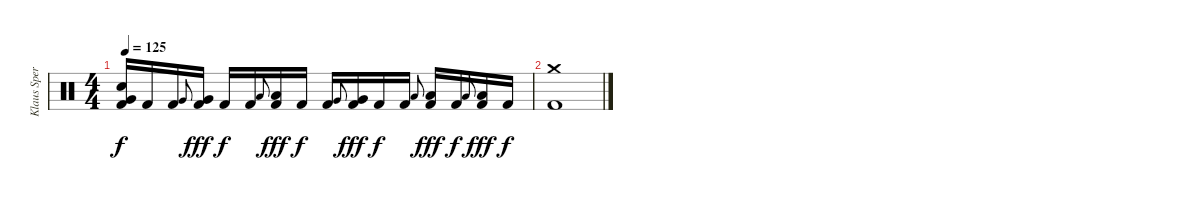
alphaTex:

\track ("Klaus Sperling" "Klaus Sper") {instrument percussion}
\staff {score}
\articulation defaults
\ts (4 4)
\tempo 125
\clef neutral
\ks c
("Electric Snare (hit)" "Very Low Tom (hit)" "Kick (hit) 2").16{dy f} "Kick (hit) 2".16 "Kick (hit) 2".16 "Very Low Tom (hit)".8{gr onbeat} ("Very Low Tom (hit)" "Kick (hit) 2").16{dy fff} "Kick (hit) 2".16{dy f} "Kick (hit) 2".16 "Low Tom (hit)".8{gr onbeat} ("Low Tom (hit)" "Kick (hit) 2").16{dy fff} "Kick (hit) 2".16{dy f} "Kick (hit) 2".16 "Very Low Tom (hit)".8{gr onbeat} ("Very Low Tom (hit)" "Kick (hit) 2").16{dy fff} "Kick (hit) 2".16{dy f} "Kick (hit) 2".16 "Low Floor Tom (hit)".8{gr onbeat} ("Low Floor Tom (hit)" "Kick (hit) 2").16{dy fff} "Kick (hit) 2".16{dy f} "Low Floor Tom (hit)".8{gr onbeat} ("Low Floor Tom (hit)" "Kick (hit) 2").16{dy fff} "Kick (hit) 2".16{dy f} |
("Crash medium (hit)" "Kick (hit) 2").1
